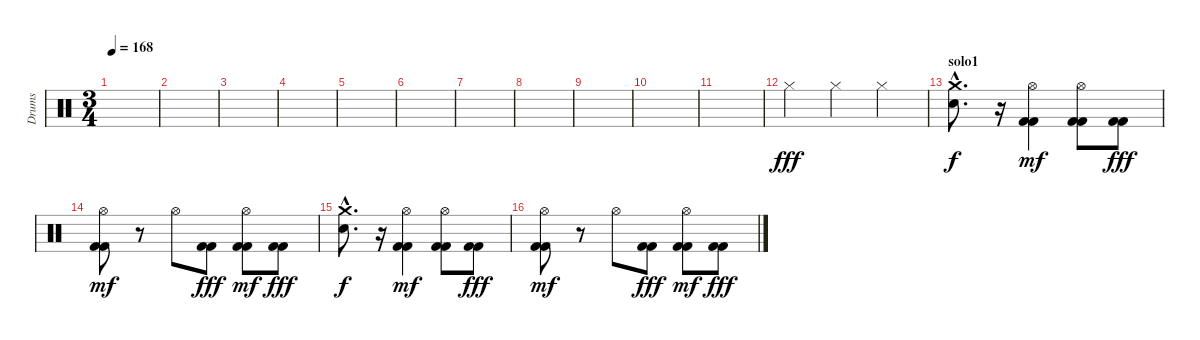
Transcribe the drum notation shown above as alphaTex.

\track ("Drums" "Drums") {instrument percussion}
\staff {score}
\articulation defaults
\ts (3 4)
\tempo 168
\clef neutral
\ks c
|
|
|
|
|
|
|
|
|
|
|
"Hi-Hat (closed)".4{dy fff} "Hi-Hat (closed)".4 "Hi-Hat (closed)".4 |
\section ("" "solo1")
("Crash medium (hit)"{hac} "Electric Snare (hit)"{hac}).8{d dy f} r.16 ("Kick (hit) 2" "Kick (hit) 2" "Hi-Hat (open)").4{dy mf} ("Kick (hit) 2" "Kick (hit) 2" "Hi-Hat (open)").8 ("Kick (hit) 2" "Kick (hit) 2").8{dy fff} |
("Kick (hit) 2" "Kick (hit) 2" "Hi-Hat (open)").8{dy mf} r.8 "Hi-Hat (open)".8 ("Kick (hit) 2" "Kick (hit) 2").8{dy fff} ("Kick (hit) 2" "Kick (hit) 2" "Hi-Hat (open)").8{dy mf} ("Kick (hit) 2" "Kick (hit) 2").8{dy fff} |
("Crash medium (hit)"{hac} "Electric Snare (hit)"{hac}).8{d dy f} r.16 ("Kick (hit) 2" "Kick (hit) 2" "Hi-Hat (open)").4{dy mf} ("Kick (hit) 2" "Kick (hit) 2" "Hi-Hat (open)").8 ("Kick (hit) 2" "Kick (hit) 2").8{dy fff} |
("Kick (hit) 2" "Kick (hit) 2" "Hi-Hat (open)").8{dy mf} r.8 "Hi-Hat (open)".8 ("Kick (hit) 2" "Kick (hit) 2").8{dy fff} ("Kick (hit) 2" "Kick (hit) 2" "Hi-Hat (open)").8{dy mf} ("Kick (hit) 2" "Kick (hit) 2").8{dy fff}
